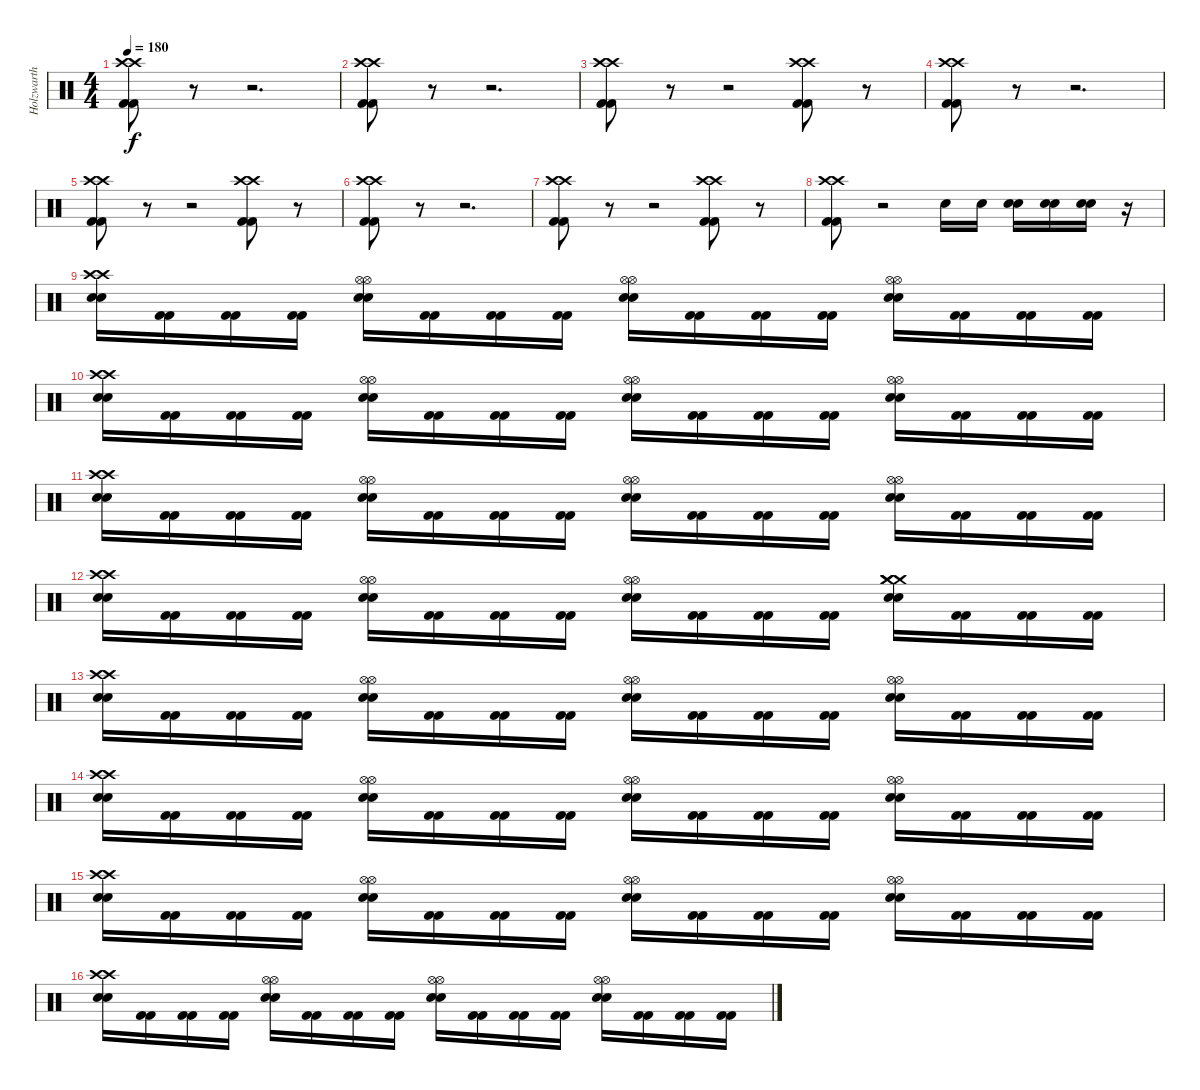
\track ("Holzwarth" "Holzwarth") {instrument percussion}
\staff {score}
\articulation defaults
\ts (4 4)
\tempo 180
\clef neutral
\ks c
("Kick (hit) 2" "Kick (hit) 2" "Crash high (hit)" "Crash high (hit)").8{dy f} r.8 r.2{d} |
("Kick (hit) 2" "Kick (hit) 2" "Crash high (hit)" "Crash high (hit)").8 r.8 r.2{d} |
("Kick (hit) 2" "Kick (hit) 2" "Crash high (hit)" "Crash high (hit)").8 r.8 r.2 ("Kick (hit) 2" "Kick (hit) 2" "Crash high (hit)" "Crash high (hit)").8 r.8 |
("Kick (hit) 2" "Kick (hit) 2" "Crash high (hit)" "Crash high (hit)").8 r.8 r.2{d} |
("Kick (hit) 2" "Kick (hit) 2" "Crash high (hit)" "Crash high (hit)").8 r.8 r.2 ("Kick (hit) 2" "Kick (hit) 2" "Crash high (hit)" "Crash high (hit)").8 r.8 |
("Kick (hit) 2" "Kick (hit) 2" "Crash high (hit)" "Crash high (hit)").8 r.8 r.2{d} |
("Kick (hit) 2" "Kick (hit) 2" "Crash high (hit)" "Crash high (hit)").8 r.8 r.2 ("Kick (hit) 2" "Kick (hit) 2" "Crash high (hit)" "Crash high (hit)").8 r.8 |
("Kick (hit) 2" "Kick (hit) 2" "Crash high (hit)" "Crash high (hit)").8 r.2 "Snare (hit) 2".16 "Snare (hit) 2".16 ("Snare (hit) 2" "Snare (hit) 2").16 ("Snare (hit) 2" "Snare (hit) 2").16 ("Snare (hit) 2" "Snare (hit) 2").16 r.16 |
("Snare (hit) 2" "Snare (hit) 2" "Crash high (hit)" "Crash high (hit)").16 ("Kick (hit) 2" "Kick (hit) 2").16 ("Kick (hit) 2" "Kick (hit) 2").16 ("Kick (hit) 2" "Kick (hit) 2").16 ("Snare (hit) 2" "Snare (hit) 2" "Hi-Hat (open)" "Hi-Hat (open)").16 ("Kick (hit) 2" "Kick (hit) 2").16 ("Kick (hit) 2" "Kick (hit) 2").16 ("Kick (hit) 2" "Kick (hit) 2").16 ("Snare (hit) 2" "Snare (hit) 2" "Hi-Hat (open)" "Hi-Hat (open)").16 ("Kick (hit) 2" "Kick (hit) 2").16 ("Kick (hit) 2" "Kick (hit) 2").16 ("Kick (hit) 2" "Kick (hit) 2").16 ("Snare (hit) 2" "Snare (hit) 2" "Hi-Hat (open)" "Hi-Hat (open)").16 ("Kick (hit) 2" "Kick (hit) 2").16 ("Kick (hit) 2" "Kick (hit) 2").16 ("Kick (hit) 2" "Kick (hit) 2").16 |
("Snare (hit) 2" "Snare (hit) 2" "Crash high (hit)" "Crash high (hit)").16 ("Kick (hit) 2" "Kick (hit) 2").16 ("Kick (hit) 2" "Kick (hit) 2").16 ("Kick (hit) 2" "Kick (hit) 2").16 ("Snare (hit) 2" "Snare (hit) 2" "Hi-Hat (open)" "Hi-Hat (open)").16 ("Kick (hit) 2" "Kick (hit) 2").16 ("Kick (hit) 2" "Kick (hit) 2").16 ("Kick (hit) 2" "Kick (hit) 2").16 ("Snare (hit) 2" "Snare (hit) 2" "Hi-Hat (open)" "Hi-Hat (open)").16 ("Kick (hit) 2" "Kick (hit) 2").16 ("Kick (hit) 2" "Kick (hit) 2").16 ("Kick (hit) 2" "Kick (hit) 2").16 ("Snare (hit) 2" "Snare (hit) 2" "Hi-Hat (open)" "Hi-Hat (open)").16 ("Kick (hit) 2" "Kick (hit) 2").16 ("Kick (hit) 2" "Kick (hit) 2").16 ("Kick (hit) 2" "Kick (hit) 2").16 |
("Snare (hit) 2" "Snare (hit) 2" "Crash high (hit)" "Crash high (hit)").16 ("Kick (hit) 2" "Kick (hit) 2").16 ("Kick (hit) 2" "Kick (hit) 2").16 ("Kick (hit) 2" "Kick (hit) 2").16 ("Snare (hit) 2" "Snare (hit) 2" "Hi-Hat (open)" "Hi-Hat (open)").16 ("Kick (hit) 2" "Kick (hit) 2").16 ("Kick (hit) 2" "Kick (hit) 2").16 ("Kick (hit) 2" "Kick (hit) 2").16 ("Snare (hit) 2" "Snare (hit) 2" "Hi-Hat (open)" "Hi-Hat (open)").16 ("Kick (hit) 2" "Kick (hit) 2").16 ("Kick (hit) 2" "Kick (hit) 2").16 ("Kick (hit) 2" "Kick (hit) 2").16 ("Snare (hit) 2" "Snare (hit) 2" "Hi-Hat (open)" "Hi-Hat (open)").16 ("Kick (hit) 2" "Kick (hit) 2").16 ("Kick (hit) 2" "Kick (hit) 2").16 ("Kick (hit) 2" "Kick (hit) 2").16 |
("Snare (hit) 2" "Snare (hit) 2" "Crash high (hit)" "Crash high (hit)").16 ("Kick (hit) 2" "Kick (hit) 2").16 ("Kick (hit) 2" "Kick (hit) 2").16 ("Kick (hit) 2" "Kick (hit) 2").16 ("Snare (hit) 2" "Snare (hit) 2" "Hi-Hat (open)" "Hi-Hat (open)").16 ("Kick (hit) 2" "Kick (hit) 2").16 ("Kick (hit) 2" "Kick (hit) 2").16 ("Kick (hit) 2" "Kick (hit) 2").16 ("Snare (hit) 2" "Snare (hit) 2" "Hi-Hat (open)" "Hi-Hat (open)").16 ("Kick (hit) 2" "Kick (hit) 2").16 ("Kick (hit) 2" "Kick (hit) 2").16 ("Kick (hit) 2" "Kick (hit) 2").16 ("Snare (hit) 2" "Snare (hit) 2" "Crash medium (hit)" "Crash medium (hit)" "Crash medium (hit)").16 ("Kick (hit) 2" "Kick (hit) 2").16 ("Kick (hit) 2" "Kick (hit) 2").16 ("Kick (hit) 2" "Kick (hit) 2").16 |
("Snare (hit) 2" "Snare (hit) 2" "Crash high (hit)" "Crash high (hit)").16 ("Kick (hit) 2" "Kick (hit) 2").16 ("Kick (hit) 2" "Kick (hit) 2").16 ("Kick (hit) 2" "Kick (hit) 2").16 ("Snare (hit) 2" "Snare (hit) 2" "Hi-Hat (open)" "Hi-Hat (open)").16 ("Kick (hit) 2" "Kick (hit) 2").16 ("Kick (hit) 2" "Kick (hit) 2").16 ("Kick (hit) 2" "Kick (hit) 2").16 ("Snare (hit) 2" "Snare (hit) 2" "Hi-Hat (open)" "Hi-Hat (open)").16 ("Kick (hit) 2" "Kick (hit) 2").16 ("Kick (hit) 2" "Kick (hit) 2").16 ("Kick (hit) 2" "Kick (hit) 2").16 ("Snare (hit) 2" "Snare (hit) 2" "Hi-Hat (open)" "Hi-Hat (open)").16 ("Kick (hit) 2" "Kick (hit) 2").16 ("Kick (hit) 2" "Kick (hit) 2").16 ("Kick (hit) 2" "Kick (hit) 2").16 |
("Snare (hit) 2" "Snare (hit) 2" "Crash high (hit)" "Crash high (hit)").16 ("Kick (hit) 2" "Kick (hit) 2").16 ("Kick (hit) 2" "Kick (hit) 2").16 ("Kick (hit) 2" "Kick (hit) 2").16 ("Snare (hit) 2" "Snare (hit) 2" "Hi-Hat (open)" "Hi-Hat (open)").16 ("Kick (hit) 2" "Kick (hit) 2").16 ("Kick (hit) 2" "Kick (hit) 2").16 ("Kick (hit) 2" "Kick (hit) 2").16 ("Snare (hit) 2" "Snare (hit) 2" "Hi-Hat (open)" "Hi-Hat (open)").16 ("Kick (hit) 2" "Kick (hit) 2").16 ("Kick (hit) 2" "Kick (hit) 2").16 ("Kick (hit) 2" "Kick (hit) 2").16 ("Snare (hit) 2" "Snare (hit) 2" "Hi-Hat (open)" "Hi-Hat (open)").16 ("Kick (hit) 2" "Kick (hit) 2").16 ("Kick (hit) 2" "Kick (hit) 2").16 ("Kick (hit) 2" "Kick (hit) 2").16 |
("Snare (hit) 2" "Snare (hit) 2" "Crash high (hit)" "Crash high (hit)").16 ("Kick (hit) 2" "Kick (hit) 2").16 ("Kick (hit) 2" "Kick (hit) 2").16 ("Kick (hit) 2" "Kick (hit) 2").16 ("Snare (hit) 2" "Snare (hit) 2" "Hi-Hat (open)" "Hi-Hat (open)").16 ("Kick (hit) 2" "Kick (hit) 2").16 ("Kick (hit) 2" "Kick (hit) 2").16 ("Kick (hit) 2" "Kick (hit) 2").16 ("Snare (hit) 2" "Snare (hit) 2" "Hi-Hat (open)" "Hi-Hat (open)").16 ("Kick (hit) 2" "Kick (hit) 2").16 ("Kick (hit) 2" "Kick (hit) 2").16 ("Kick (hit) 2" "Kick (hit) 2").16 ("Snare (hit) 2" "Snare (hit) 2" "Hi-Hat (open)" "Hi-Hat (open)").16 ("Kick (hit) 2" "Kick (hit) 2").16 ("Kick (hit) 2" "Kick (hit) 2").16 ("Kick (hit) 2" "Kick (hit) 2").16 |
("Snare (hit) 2" "Snare (hit) 2" "Crash high (hit)" "Crash high (hit)").16 ("Kick (hit) 2" "Kick (hit) 2").16 ("Kick (hit) 2" "Kick (hit) 2").16 ("Kick (hit) 2" "Kick (hit) 2").16 ("Snare (hit) 2" "Snare (hit) 2" "Hi-Hat (open)" "Hi-Hat (open)").16 ("Kick (hit) 2" "Kick (hit) 2").16 ("Kick (hit) 2" "Kick (hit) 2").16 ("Kick (hit) 2" "Kick (hit) 2").16 ("Snare (hit) 2" "Snare (hit) 2" "Hi-Hat (open)" "Hi-Hat (open)").16 ("Kick (hit) 2" "Kick (hit) 2").16 ("Kick (hit) 2" "Kick (hit) 2").16 ("Kick (hit) 2" "Kick (hit) 2").16 ("Snare (hit) 2" "Snare (hit) 2" "Hi-Hat (open)" "Hi-Hat (open)").16 ("Kick (hit) 2" "Kick (hit) 2").16 ("Kick (hit) 2" "Kick (hit) 2").16 ("Kick (hit) 2" "Kick (hit) 2").16
